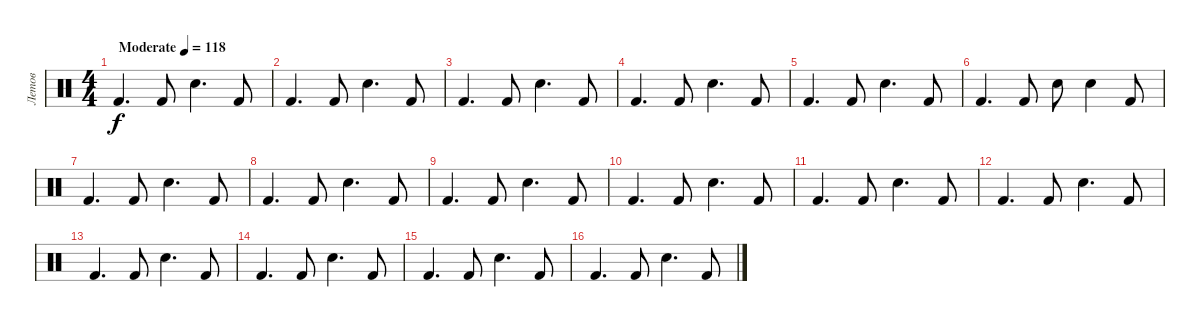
\track ("Летов" "Летов") {instrument percussion}
\staff {score}
\articulation defaults
\ts (4 4)
\tempo (118 "Moderate")
\clef neutral
\ks c "Kick (hit) 2".4{d dy f} "Kick (hit) 2".8 "Electric Snare (hit)".4{d} "Kick (hit) 2".8
|
"Kick (hit) 2".4{d} "Kick (hit) 2".8 "Electric Snare (hit)".4{d} "Kick (hit) 2".8 |
"Kick (hit) 2".4{d} "Kick (hit) 2".8 "Electric Snare (hit)".4{d} "Kick (hit) 2".8 |
"Kick (hit) 2".4{d} "Kick (hit) 2".8 "Electric Snare (hit)".4{d} "Kick (hit) 2".8 |
"Kick (hit) 2".4{d} "Kick (hit) 2".8 "Electric Snare (hit)".4{d} "Kick (hit) 2".8 |
"Kick (hit) 2".4{d} "Kick (hit) 2".8 "Electric Snare (hit)".8 "Electric Snare (hit)".4 "Kick (hit) 2".8 |
"Kick (hit) 2".4{d} "Kick (hit) 2".8 "Electric Snare (hit)".4{d} "Kick (hit) 2".8 |
"Kick (hit) 2".4{d} "Kick (hit) 2".8 "Electric Snare (hit)".4{d} "Kick (hit) 2".8 |
"Kick (hit) 2".4{d} "Kick (hit) 2".8 "Electric Snare (hit)".4{d} "Kick (hit) 2".8 |
"Kick (hit) 2".4{d} "Kick (hit) 2".8 "Electric Snare (hit)".4{d} "Kick (hit) 2".8 |
"Kick (hit) 2".4{d} "Kick (hit) 2".8 "Electric Snare (hit)".4{d} "Kick (hit) 2".8 |
"Kick (hit) 2".4{d} "Kick (hit) 2".8 "Electric Snare (hit)".4{d} "Kick (hit) 2".8 |
"Kick (hit) 2".4{d} "Kick (hit) 2".8 "Electric Snare (hit)".4{d} "Kick (hit) 2".8 |
"Kick (hit) 2".4{d} "Kick (hit) 2".8 "Electric Snare (hit)".4{d} "Kick (hit) 2".8 |
"Kick (hit) 2".4{d} "Kick (hit) 2".8 "Electric Snare (hit)".4{d} "Kick (hit) 2".8 |
"Kick (hit) 2".4{d} "Kick (hit) 2".8 "Electric Snare (hit)".4{d} "Kick (hit) 2".8
